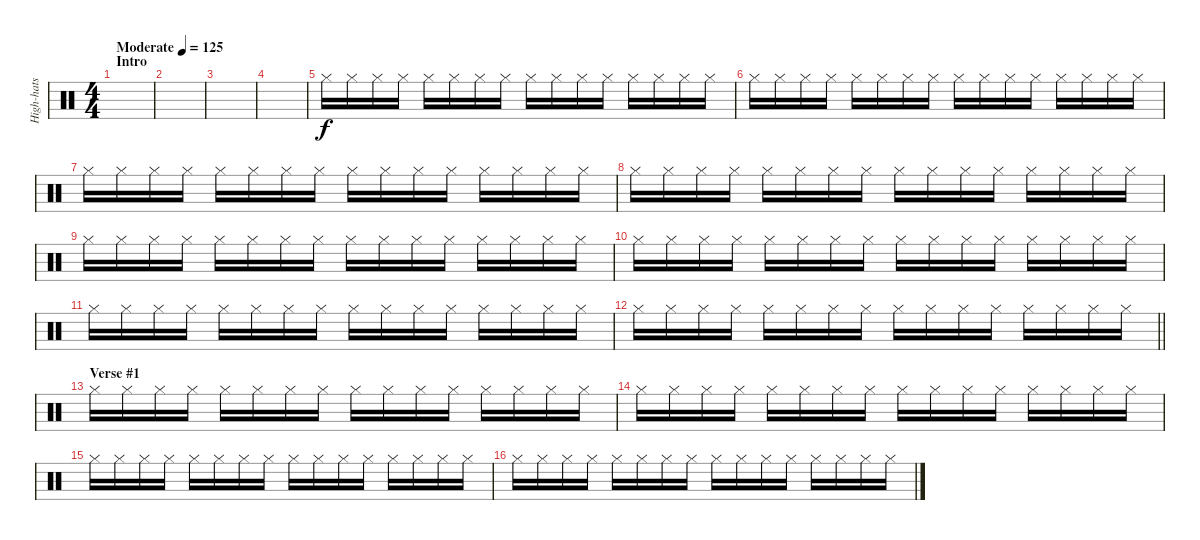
\track ("High-hats" "High-hats") {instrument percussion}
\staff {score}
\articulation defaults
\ts (4 4)
\section ("" "Intro")
\tempo (125 "Moderate")
\clef neutral
\ks c
|
|
|
|
"Hi-Hat (closed)".16 "Hi-Hat (closed)".16 "Hi-Hat (closed)".16 "Hi-Hat (closed)".16 "Hi-Hat (closed)".16 "Hi-Hat (closed)".16 "Hi-Hat (closed)".16 "Hi-Hat (closed)".16 "Hi-Hat (closed)".16 "Hi-Hat (closed)".16 "Hi-Hat (closed)".16 "Hi-Hat (closed)".16 "Hi-Hat (closed)".16 "Hi-Hat (closed)".16 "Hi-Hat (closed)".16 "Hi-Hat (closed)".16 |
"Hi-Hat (closed)".16 "Hi-Hat (closed)".16 "Hi-Hat (closed)".16 "Hi-Hat (closed)".16 "Hi-Hat (closed)".16 "Hi-Hat (closed)".16 "Hi-Hat (closed)".16 "Hi-Hat (closed)".16 "Hi-Hat (closed)".16 "Hi-Hat (closed)".16 "Hi-Hat (closed)".16 "Hi-Hat (closed)".16 "Hi-Hat (closed)".16 "Hi-Hat (closed)".16 "Hi-Hat (closed)".16 "Hi-Hat (closed)".16 |
"Hi-Hat (closed)".16 "Hi-Hat (closed)".16 "Hi-Hat (closed)".16 "Hi-Hat (closed)".16 "Hi-Hat (closed)".16 "Hi-Hat (closed)".16 "Hi-Hat (closed)".16 "Hi-Hat (closed)".16 "Hi-Hat (closed)".16 "Hi-Hat (closed)".16 "Hi-Hat (closed)".16 "Hi-Hat (closed)".16 "Hi-Hat (closed)".16 "Hi-Hat (closed)".16 "Hi-Hat (closed)".16 "Hi-Hat (closed)".16 |
"Hi-Hat (closed)".16 "Hi-Hat (closed)".16 "Hi-Hat (closed)".16 "Hi-Hat (closed)".16 "Hi-Hat (closed)".16 "Hi-Hat (closed)".16 "Hi-Hat (closed)".16 "Hi-Hat (closed)".16 "Hi-Hat (closed)".16 "Hi-Hat (closed)".16 "Hi-Hat (closed)".16 "Hi-Hat (closed)".16 "Hi-Hat (closed)".16 "Hi-Hat (closed)".16 "Hi-Hat (closed)".16 "Hi-Hat (closed)".16 |
"Hi-Hat (closed)".16 "Hi-Hat (closed)".16 "Hi-Hat (closed)".16 "Hi-Hat (closed)".16 "Hi-Hat (closed)".16 "Hi-Hat (closed)".16 "Hi-Hat (closed)".16 "Hi-Hat (closed)".16 "Hi-Hat (closed)".16 "Hi-Hat (closed)".16 "Hi-Hat (closed)".16 "Hi-Hat (closed)".16 "Hi-Hat (closed)".16 "Hi-Hat (closed)".16 "Hi-Hat (closed)".16 "Hi-Hat (closed)".16 |
"Hi-Hat (closed)".16 "Hi-Hat (closed)".16 "Hi-Hat (closed)".16 "Hi-Hat (closed)".16 "Hi-Hat (closed)".16 "Hi-Hat (closed)".16 "Hi-Hat (closed)".16 "Hi-Hat (closed)".16 "Hi-Hat (closed)".16 "Hi-Hat (closed)".16 "Hi-Hat (closed)".16 "Hi-Hat (closed)".16 "Hi-Hat (closed)".16 "Hi-Hat (closed)".16 "Hi-Hat (closed)".16 "Hi-Hat (closed)".16 |
"Hi-Hat (closed)".16 "Hi-Hat (closed)".16 "Hi-Hat (closed)".16 "Hi-Hat (closed)".16 "Hi-Hat (closed)".16 "Hi-Hat (closed)".16 "Hi-Hat (closed)".16 "Hi-Hat (closed)".16 "Hi-Hat (closed)".16 "Hi-Hat (closed)".16 "Hi-Hat (closed)".16 "Hi-Hat (closed)".16 "Hi-Hat (closed)".16 "Hi-Hat (closed)".16 "Hi-Hat (closed)".16 "Hi-Hat (closed)".16 |
\barLineRight lightlight "Hi-Hat (closed)".16 "Hi-Hat (closed)".16 "Hi-Hat (closed)".16 "Hi-Hat (closed)".16 "Hi-Hat (closed)".16 "Hi-Hat (closed)".16 "Hi-Hat (closed)".16 "Hi-Hat (closed)".16 "Hi-Hat (closed)".16 "Hi-Hat (closed)".16 "Hi-Hat (closed)".16 "Hi-Hat (closed)".16 "Hi-Hat (closed)".16 "Hi-Hat (closed)".16 "Hi-Hat (closed)".16 "Hi-Hat (closed)".16
|
\section ("" "Verse #1")
"Hi-Hat (closed)".16 "Hi-Hat (closed)".16 "Hi-Hat (closed)".16 "Hi-Hat (closed)".16 "Hi-Hat (closed)".16 "Hi-Hat (closed)".16 "Hi-Hat (closed)".16 "Hi-Hat (closed)".16 "Hi-Hat (closed)".16 "Hi-Hat (closed)".16 "Hi-Hat (closed)".16 "Hi-Hat (closed)".16 "Hi-Hat (closed)".16 "Hi-Hat (closed)".16 "Hi-Hat (closed)".16 "Hi-Hat (closed)".16 |
"Hi-Hat (closed)".16 "Hi-Hat (closed)".16 "Hi-Hat (closed)".16 "Hi-Hat (closed)".16 "Hi-Hat (closed)".16 "Hi-Hat (closed)".16 "Hi-Hat (closed)".16 "Hi-Hat (closed)".16 "Hi-Hat (closed)".16 "Hi-Hat (closed)".16 "Hi-Hat (closed)".16 "Hi-Hat (closed)".16 "Hi-Hat (closed)".16 "Hi-Hat (closed)".16 "Hi-Hat (closed)".16 "Hi-Hat (closed)".16 |
"Hi-Hat (closed)".16 "Hi-Hat (closed)".16 "Hi-Hat (closed)".16 "Hi-Hat (closed)".16 "Hi-Hat (closed)".16 "Hi-Hat (closed)".16 "Hi-Hat (closed)".16 "Hi-Hat (closed)".16 "Hi-Hat (closed)".16 "Hi-Hat (closed)".16 "Hi-Hat (closed)".16 "Hi-Hat (closed)".16 "Hi-Hat (closed)".16 "Hi-Hat (closed)".16 "Hi-Hat (closed)".16 "Hi-Hat (closed)".16 |
"Hi-Hat (closed)".16 "Hi-Hat (closed)".16 "Hi-Hat (closed)".16 "Hi-Hat (closed)".16 "Hi-Hat (closed)".16 "Hi-Hat (closed)".16 "Hi-Hat (closed)".16 "Hi-Hat (closed)".16 "Hi-Hat (closed)".16 "Hi-Hat (closed)".16 "Hi-Hat (closed)".16 "Hi-Hat (closed)".16 "Hi-Hat (closed)".16 "Hi-Hat (closed)".16 "Hi-Hat (closed)".16 "Hi-Hat (closed)".16
